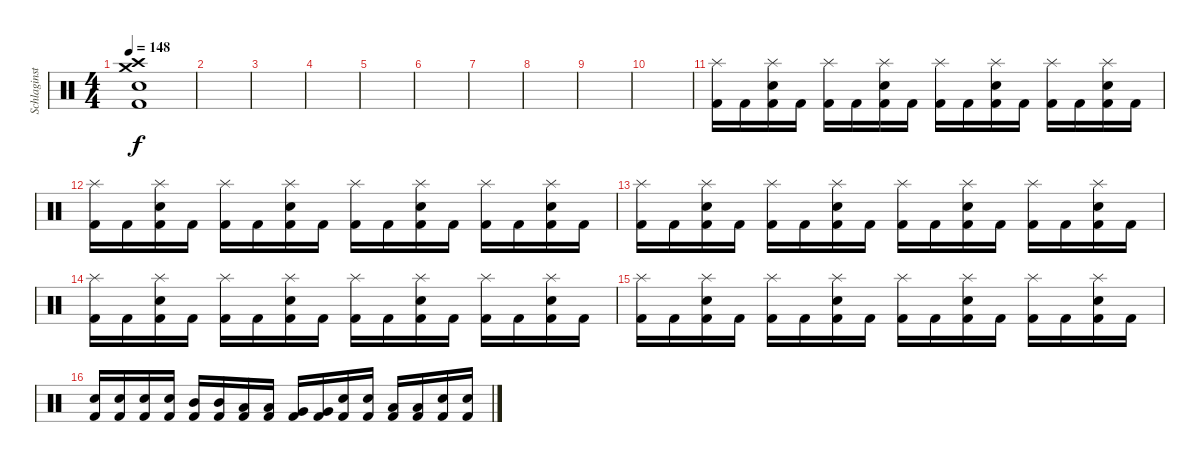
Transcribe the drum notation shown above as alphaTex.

\track ("Schlaginstrumente - Auswahl" "Schlaginst") {instrument percussion}
\staff {score}
\articulation defaults
\ts (4 4)
\tempo 148
\clef neutral
\ks c
("Crash medium (hit)" "Crash high (hit)" "Electric Snare (hit)" "Kick (hit) 2").1{dy f} |
|
|
|
|
|
|
|
|
|
("Splash (hit)" "Kick (hit) 2").16 "Kick (hit) 2".16 ("Splash (hit)" "Electric Snare (hit)" "Kick (hit) 2").16 "Kick (hit) 2".16 ("Splash (hit)" "Kick (hit) 2").16 "Kick (hit) 2".16 ("Splash (hit)" "Electric Snare (hit)" "Kick (hit) 2").16 "Kick (hit) 2".16 ("Splash (hit)" "Kick (hit) 2").16 "Kick (hit) 2".16 ("Splash (hit)" "Electric Snare (hit)" "Kick (hit) 2").16 "Kick (hit) 2".16 ("Splash (hit)" "Kick (hit) 2").16 "Kick (hit) 2".16 ("Splash (hit)" "Electric Snare (hit)" "Kick (hit) 2").16 "Kick (hit) 2".16 |
("Splash (hit)" "Kick (hit) 2").16 "Kick (hit) 2".16 ("Splash (hit)" "Electric Snare (hit)" "Kick (hit) 2").16 "Kick (hit) 2".16 ("Splash (hit)" "Kick (hit) 2").16 "Kick (hit) 2".16 ("Splash (hit)" "Electric Snare (hit)" "Kick (hit) 2").16 "Kick (hit) 2".16 ("Splash (hit)" "Kick (hit) 2").16 "Kick (hit) 2".16 ("Splash (hit)" "Electric Snare (hit)" "Kick (hit) 2").16 "Kick (hit) 2".16 ("Splash (hit)" "Kick (hit) 2").16 "Kick (hit) 2".16 ("Splash (hit)" "Electric Snare (hit)" "Kick (hit) 2").16 "Kick (hit) 2".16 |
("Splash (hit)" "Kick (hit) 2").16 "Kick (hit) 2".16 ("Splash (hit)" "Electric Snare (hit)" "Kick (hit) 2").16 "Kick (hit) 2".16 ("Splash (hit)" "Kick (hit) 2").16 "Kick (hit) 2".16 ("Splash (hit)" "Electric Snare (hit)" "Kick (hit) 2").16 "Kick (hit) 2".16 ("Splash (hit)" "Kick (hit) 2").16 "Kick (hit) 2".16 ("Splash (hit)" "Electric Snare (hit)" "Kick (hit) 2").16 "Kick (hit) 2".16 ("Splash (hit)" "Kick (hit) 2").16 "Kick (hit) 2".16 ("Splash (hit)" "Electric Snare (hit)" "Kick (hit) 2").16 "Kick (hit) 2".16 |
("Splash (hit)" "Kick (hit) 2").16 "Kick (hit) 2".16 ("Splash (hit)" "Electric Snare (hit)" "Kick (hit) 2").16 "Kick (hit) 2".16 ("Splash (hit)" "Kick (hit) 2").16 "Kick (hit) 2".16 ("Splash (hit)" "Electric Snare (hit)" "Kick (hit) 2").16 "Kick (hit) 2".16 ("Splash (hit)" "Kick (hit) 2").16 "Kick (hit) 2".16 ("Splash (hit)" "Electric Snare (hit)" "Kick (hit) 2").16 "Kick (hit) 2".16 ("Splash (hit)" "Kick (hit) 2").16 "Kick (hit) 2".16 ("Splash (hit)" "Electric Snare (hit)" "Kick (hit) 2").16 "Kick (hit) 2".16 |
("Splash (hit)" "Kick (hit) 2").16 "Kick (hit) 2".16 ("Splash (hit)" "Electric Snare (hit)" "Kick (hit) 2").16 "Kick (hit) 2".16 ("Splash (hit)" "Kick (hit) 2").16 "Kick (hit) 2".16 ("Splash (hit)" "Electric Snare (hit)" "Kick (hit) 2").16 "Kick (hit) 2".16 ("Splash (hit)" "Kick (hit) 2").16 "Kick (hit) 2".16 ("Splash (hit)" "Electric Snare (hit)" "Kick (hit) 2").16 "Kick (hit) 2".16 ("Splash (hit)" "Kick (hit) 2").16 "Kick (hit) 2".16 ("Splash (hit)" "Electric Snare (hit)" "Kick (hit) 2").16 "Kick (hit) 2".16 |
("Electric Snare (hit)" "Kick (hit) 2").16 ("Electric Snare (hit)" "Kick (hit) 2").16 ("Electric Snare (hit)" "Kick (hit) 2").16 ("Electric Snare (hit)" "Kick (hit) 2").16 ("Mid Tom (hit)" "Kick (hit) 2").16 ("Mid Tom (hit)" "Kick (hit) 2").16 ("Low Tom (hit)" "Kick (hit) 2").16 ("Low Tom (hit)" "Kick (hit) 2").16 ("Very Low Tom (hit)" "Kick (hit) 2").16 ("Very Low Tom (hit)" "Kick (hit) 2").16 ("Electric Snare (hit)" "Kick (hit) 2").16 ("Electric Snare (hit)" "Kick (hit) 2").16 ("Low Tom (hit)" "Kick (hit) 2").16 ("Low Tom (hit)" "Kick (hit) 2").16 ("Electric Snare (hit)" "Kick (hit) 2").16 ("Electric Snare (hit)" "Kick (hit) 2").16
